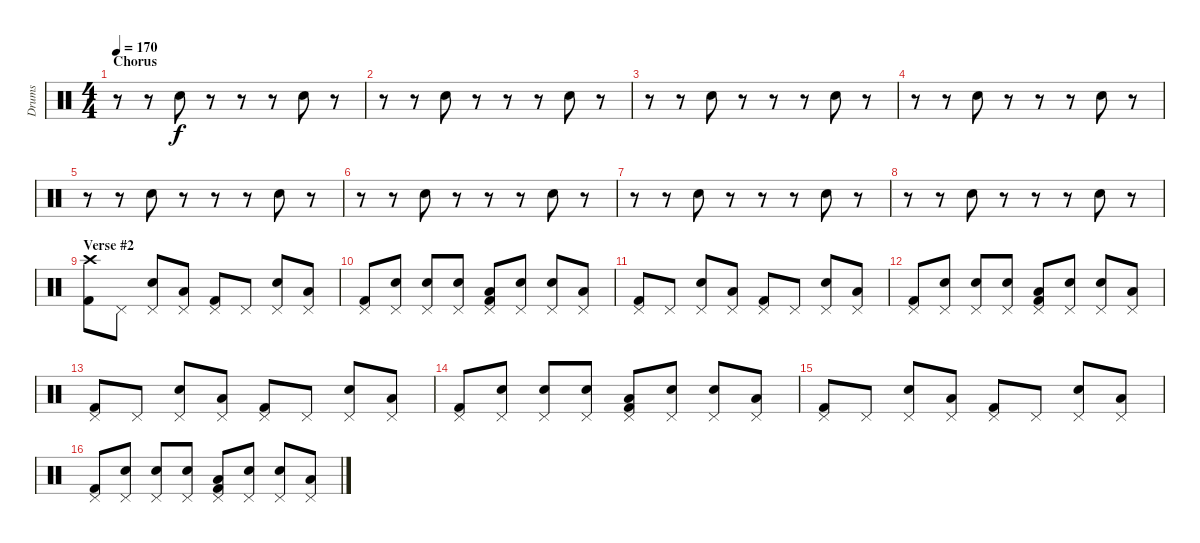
\track ("Drums" "Drums") {instrument percussion}
\staff {score}
\articulation defaults
\ts (4 4)
\section ("" "Chorus")
\tempo 170
\clef neutral
\ks c
r.8{dy f} r.8 "Electric Snare (hit)".8 r.8 r.8 r.8 "Electric Snare (hit)".8 r.8 |
r.8 r.8 "Electric Snare (hit)".8 r.8 r.8 r.8 "Electric Snare (hit)".8 r.8 |
r.8 r.8 "Electric Snare (hit)".8 r.8 r.8 r.8 "Electric Snare (hit)".8 r.8 |
r.8 r.8 "Electric Snare (hit)".8 r.8 r.8 r.8 "Electric Snare (hit)".8 r.8 |
r.8 r.8 "Electric Snare (hit)".8 r.8 r.8 r.8 "Electric Snare (hit)".8 r.8 |
r.8 r.8 "Electric Snare (hit)".8 r.8 r.8 r.8 "Electric Snare (hit)".8 r.8 |
r.8 r.8 "Electric Snare (hit)".8 r.8 r.8 r.8 "Electric Snare (hit)".8 r.8 |
r.8 r.8 "Electric Snare (hit)".8 r.8 r.8 r.8 "Electric Snare (hit)".8 r.8 |
\section ("" "Verse #2")
("Crash high (hit)" "Kick (hit) 2").8 "Pedal Hi-Hat (hit)".8 ("Pedal Hi-Hat (hit)" "Electric Snare (hit)").8 ("Pedal Hi-Hat (hit)" "Low Tom (hit)").8 ("Pedal Hi-Hat (hit)" "Kick (hit) 2").8 "Pedal Hi-Hat (hit)".8 ("Pedal Hi-Hat (hit)" "Electric Snare (hit)").8 ("Pedal Hi-Hat (hit)" "Low Tom (hit)").8 |
("Pedal Hi-Hat (hit)" "Kick (hit) 2").8 ("Pedal Hi-Hat (hit)" "Electric Snare (hit)").8 ("Pedal Hi-Hat (hit)" "Electric Snare (hit)").8 ("Pedal Hi-Hat (hit)" "Electric Snare (hit)").8 ("Pedal Hi-Hat (hit)" "Low Tom (hit)" "Kick (hit) 2").8 ("Pedal Hi-Hat (hit)" "Electric Snare (hit)").8 ("Pedal Hi-Hat (hit)" "Electric Snare (hit)").8 ("Pedal Hi-Hat (hit)" "Low Tom (hit)").8 |
("Pedal Hi-Hat (hit)" "Kick (hit) 2").8 "Pedal Hi-Hat (hit)".8 ("Pedal Hi-Hat (hit)" "Electric Snare (hit)").8 ("Pedal Hi-Hat (hit)" "Low Tom (hit)").8 ("Pedal Hi-Hat (hit)" "Kick (hit) 2").8 "Pedal Hi-Hat (hit)".8 ("Pedal Hi-Hat (hit)" "Electric Snare (hit)").8 ("Pedal Hi-Hat (hit)" "Low Tom (hit)").8 |
("Pedal Hi-Hat (hit)" "Kick (hit) 2").8 ("Pedal Hi-Hat (hit)" "Electric Snare (hit)").8 ("Pedal Hi-Hat (hit)" "Electric Snare (hit)").8 ("Pedal Hi-Hat (hit)" "Electric Snare (hit)").8 ("Pedal Hi-Hat (hit)" "Low Tom (hit)" "Kick (hit) 2").8 ("Pedal Hi-Hat (hit)" "Electric Snare (hit)").8 ("Pedal Hi-Hat (hit)" "Electric Snare (hit)").8 ("Pedal Hi-Hat (hit)" "Low Tom (hit)").8 |
("Pedal Hi-Hat (hit)" "Kick (hit) 2").8 "Pedal Hi-Hat (hit)".8 ("Pedal Hi-Hat (hit)" "Electric Snare (hit)").8 ("Pedal Hi-Hat (hit)" "Low Tom (hit)").8 ("Pedal Hi-Hat (hit)" "Kick (hit) 2").8 "Pedal Hi-Hat (hit)".8 ("Pedal Hi-Hat (hit)" "Electric Snare (hit)").8 ("Pedal Hi-Hat (hit)" "Low Tom (hit)").8 |
("Pedal Hi-Hat (hit)" "Kick (hit) 2").8 ("Pedal Hi-Hat (hit)" "Electric Snare (hit)").8 ("Pedal Hi-Hat (hit)" "Electric Snare (hit)").8 ("Pedal Hi-Hat (hit)" "Electric Snare (hit)").8 ("Pedal Hi-Hat (hit)" "Low Tom (hit)" "Kick (hit) 2").8 ("Pedal Hi-Hat (hit)" "Electric Snare (hit)").8 ("Pedal Hi-Hat (hit)" "Electric Snare (hit)").8 ("Pedal Hi-Hat (hit)" "Low Tom (hit)").8 |
("Pedal Hi-Hat (hit)" "Kick (hit) 2").8 "Pedal Hi-Hat (hit)".8 ("Pedal Hi-Hat (hit)" "Electric Snare (hit)").8 ("Pedal Hi-Hat (hit)" "Low Tom (hit)").8 ("Pedal Hi-Hat (hit)" "Kick (hit) 2").8 "Pedal Hi-Hat (hit)".8 ("Pedal Hi-Hat (hit)" "Electric Snare (hit)").8 ("Pedal Hi-Hat (hit)" "Low Tom (hit)").8 |
("Pedal Hi-Hat (hit)" "Kick (hit) 2").8 ("Pedal Hi-Hat (hit)" "Electric Snare (hit)").8 ("Pedal Hi-Hat (hit)" "Electric Snare (hit)").8 ("Pedal Hi-Hat (hit)" "Electric Snare (hit)").8 ("Pedal Hi-Hat (hit)" "Low Tom (hit)" "Kick (hit) 2").8 ("Pedal Hi-Hat (hit)" "Electric Snare (hit)").8 ("Pedal Hi-Hat (hit)" "Electric Snare (hit)").8 ("Pedal Hi-Hat (hit)" "Low Tom (hit)").8
